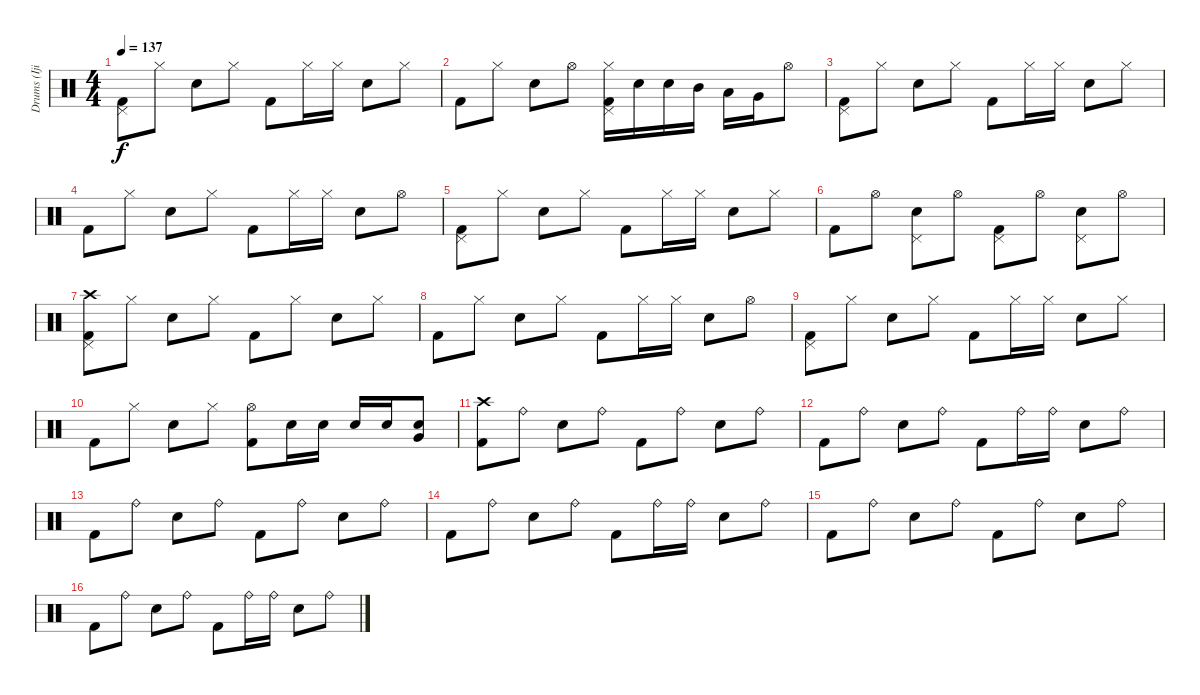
\track ("Drums (Ijichi)" "Drums (Iji") {instrument percussion}
\staff {score}
\articulation defaults
\ts (4 4)
\tempo 137
\clef neutral
\ks c
("Pedal Hi-Hat (hit)" "Kick (hit) 2").8{dy f} "Hi-Hat (closed)".8 "Snare (hit) 2".8 "Hi-Hat (closed)".8 "Kick (hit) 2".8 "Hi-Hat (closed)".16 "Hi-Hat (closed)".16 "Snare (hit) 2".8 "Hi-Hat (closed)".8 |
"Kick (hit) 2".8 "Hi-Hat (closed)".8 "Snare (hit) 2".8 "Hi-Hat (open)".8 ("Hi-Hat (closed)" "Pedal Hi-Hat (hit)" "Kick (hit) 2").16 "Snare (hit) 2".16 "Snare (hit) 2".16 "Mid Tom (hit)".16 "Low Tom (hit)".16 "Very Low Tom (hit)".16 "Hi-Hat (open)".8 |
("Pedal Hi-Hat (hit)" "Kick (hit) 2").8 "Hi-Hat (closed)".8 "Snare (hit) 2".8 "Hi-Hat (closed)".8 "Kick (hit) 2".8 "Hi-Hat (closed)".16 "Hi-Hat (closed)".16 "Snare (hit) 2".8 "Hi-Hat (closed)".8 |
"Kick (hit) 2".8 "Hi-Hat (closed)".8 "Snare (hit) 2".8 "Hi-Hat (closed)".8 "Kick (hit) 2".8 "Hi-Hat (closed)".16 "Hi-Hat (closed)".16 "Snare (hit) 2".8 "Hi-Hat (open)".8 |
("Pedal Hi-Hat (hit)" "Kick (hit) 2").8 "Hi-Hat (closed)".8 "Snare (hit) 2".8 "Hi-Hat (closed)".8 "Kick (hit) 2".8 "Hi-Hat (closed)".16 "Hi-Hat (closed)".16 "Snare (hit) 2".8 "Hi-Hat (closed)".8 |
"Kick (hit) 2".8 "Hi-Hat (open)".8 ("Pedal Hi-Hat (hit)" "Snare (hit) 2").8 "Hi-Hat (open)".8 ("Pedal Hi-Hat (hit)" "Kick (hit) 2").8 "Hi-Hat (open)".8 ("Pedal Hi-Hat (hit)" "Snare (hit) 2").8 "Hi-Hat (open)".8 |
("Crash high (hit)" "Pedal Hi-Hat (hit)" "Kick (hit) 2").8 "Hi-Hat (closed)".8 "Snare (hit) 2".8 "Hi-Hat (closed)".8 "Kick (hit) 2".8 "Hi-Hat (closed)".8 "Snare (hit) 2".8 "Hi-Hat (closed)".8 |
"Kick (hit) 2".8 "Hi-Hat (closed)".8 "Snare (hit) 2".8 "Hi-Hat (closed)".8 "Kick (hit) 2".8 "Hi-Hat (closed)".16 "Hi-Hat (closed)".16 "Snare (hit) 2".8 "Hi-Hat (open)".8 |
("Pedal Hi-Hat (hit)" "Kick (hit) 2").8 "Hi-Hat (closed)".8 "Snare (hit) 2".8 "Hi-Hat (closed)".8 "Kick (hit) 2".8 "Hi-Hat (closed)".16 "Hi-Hat (closed)".16 "Snare (hit) 2".8 "Hi-Hat (closed)".8 |
"Kick (hit) 2".8 "Hi-Hat (closed)".8 "Snare (hit) 2".8 "Hi-Hat (closed)".8 ("Hi-Hat (open)" "Kick (hit) 2").8 "Snare (hit) 2".16 "Snare (hit) 2".16 "Snare (hit) 2".16 "Snare (hit) 2".16 ("Snare (hit) 2" "Very Low Tom (hit)").8 |
("Crash high (hit)" "Kick (hit) 2").8 "Ride (bell)".8 "Snare (hit) 2".8 "Ride (bell)".8 "Kick (hit) 2".8 "Ride (bell)".8 "Snare (hit) 2".8 "Ride (bell)".8 |
"Kick (hit) 2".8 "Ride (bell)".8 "Snare (hit) 2".8 "Ride (bell)".8 "Kick (hit) 2".8 "Ride (bell)".16 "Ride (bell)".16 "Snare (hit) 2".8 "Ride (bell)".8 |
"Kick (hit) 2".8 "Ride (bell)".8 "Snare (hit) 2".8 "Ride (bell)".8 "Kick (hit) 2".8 "Ride (bell)".8 "Snare (hit) 2".8 "Ride (bell)".8 |
"Kick (hit) 2".8 "Ride (bell)".8 "Snare (hit) 2".8 "Ride (bell)".8 "Kick (hit) 2".8 "Ride (bell)".16 "Ride (bell)".16 "Snare (hit) 2".8 "Ride (bell)".8 |
"Kick (hit) 2".8 "Ride (bell)".8 "Snare (hit) 2".8 "Ride (bell)".8 "Kick (hit) 2".8 "Ride (bell)".8 "Snare (hit) 2".8 "Ride (bell)".8 |
"Kick (hit) 2".8 "Ride (bell)".8 "Snare (hit) 2".8 "Ride (bell)".8 "Kick (hit) 2".8 "Ride (bell)".16 "Ride (bell)".16 "Snare (hit) 2".8 "Ride (bell)".8
